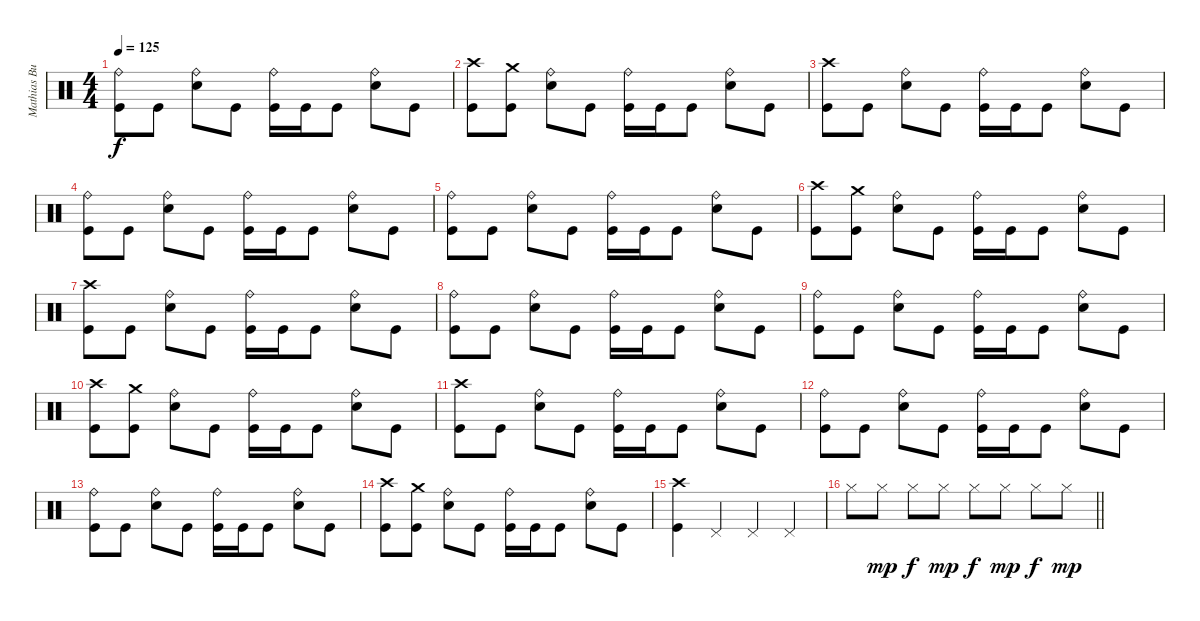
\track ("Mathias Burchardt" "Mathias Bu") {instrument percussion}
\staff {score}
\articulation defaults
\ts (4 4)
\tempo 125
\clef neutral
\ks c
("Ride (bell)" "Kick (hit)").8{dy f} "Kick (hit)".8 ("Ride (bell)" "Snare (hit) 2").8 "Kick (hit)".8 ("Ride (bell)" "Kick (hit)").16 "Kick (hit)".16 "Kick (hit)".8 ("Ride (bell)" "Snare (hit) 2").8 "Kick (hit)".8 |
("Crash high (hit)" "Kick (hit)").8 ("Crash medium (hit)" "Kick (hit)").8 ("Ride (bell)" "Snare (hit) 2").8 "Kick (hit)".8 ("Ride (bell)" "Kick (hit)").16 "Kick (hit)".16 "Kick (hit)".8 ("Ride (bell)" "Snare (hit) 2").8 "Kick (hit)".8 |
("Crash high (hit)" "Kick (hit)").8 "Kick (hit)".8 ("Ride (bell)" "Snare (hit) 2").8 "Kick (hit)".8 ("Ride (bell)" "Kick (hit)").16 "Kick (hit)".16 "Kick (hit)".8 ("Ride (bell)" "Snare (hit) 2").8 "Kick (hit)".8 |
("Ride (bell)" "Kick (hit)").8 "Kick (hit)".8 ("Ride (bell)" "Snare (hit) 2").8 "Kick (hit)".8 ("Ride (bell)" "Kick (hit)").16 "Kick (hit)".16 "Kick (hit)".8 ("Ride (bell)" "Snare (hit) 2").8 "Kick (hit)".8 |
("Ride (bell)" "Kick (hit)").8 "Kick (hit)".8 ("Ride (bell)" "Snare (hit) 2").8 "Kick (hit)".8 ("Ride (bell)" "Kick (hit)").16 "Kick (hit)".16 "Kick (hit)".8 ("Ride (bell)" "Snare (hit) 2").8 "Kick (hit)".8 |
("Crash high (hit)" "Kick (hit)").8 ("Crash medium (hit)" "Kick (hit)").8 ("Ride (bell)" "Snare (hit) 2").8 "Kick (hit)".8 ("Ride (bell)" "Kick (hit)").16 "Kick (hit)".16 "Kick (hit)".8 ("Ride (bell)" "Snare (hit) 2").8 "Kick (hit)".8 |
("Crash high (hit)" "Kick (hit)").8 "Kick (hit)".8 ("Ride (bell)" "Snare (hit) 2").8 "Kick (hit)".8 ("Ride (bell)" "Kick (hit)").16 "Kick (hit)".16 "Kick (hit)".8 ("Ride (bell)" "Snare (hit) 2").8 "Kick (hit)".8 |
("Ride (bell)" "Kick (hit)").8 "Kick (hit)".8 ("Ride (bell)" "Snare (hit) 2").8 "Kick (hit)".8 ("Ride (bell)" "Kick (hit)").16 "Kick (hit)".16 "Kick (hit)".8 ("Ride (bell)" "Snare (hit) 2").8 "Kick (hit)".8 |
("Ride (bell)" "Kick (hit)").8 "Kick (hit)".8 ("Ride (bell)" "Snare (hit) 2").8 "Kick (hit)".8 ("Ride (bell)" "Kick (hit)").16 "Kick (hit)".16 "Kick (hit)".8 ("Ride (bell)" "Snare (hit) 2").8 "Kick (hit)".8 |
("Crash high (hit)" "Kick (hit)").8 ("Crash medium (hit)" "Kick (hit)").8 ("Ride (bell)" "Snare (hit) 2").8 "Kick (hit)".8 ("Ride (bell)" "Kick (hit)").16 "Kick (hit)".16 "Kick (hit)".8 ("Ride (bell)" "Snare (hit) 2").8 "Kick (hit)".8 |
("Crash high (hit)" "Kick (hit)").8 "Kick (hit)".8 ("Ride (bell)" "Snare (hit) 2").8 "Kick (hit)".8 ("Ride (bell)" "Kick (hit)").16 "Kick (hit)".16 "Kick (hit)".8 ("Ride (bell)" "Snare (hit) 2").8 "Kick (hit)".8 |
("Ride (bell)" "Kick (hit)").8 "Kick (hit)".8 ("Ride (bell)" "Snare (hit) 2").8 "Kick (hit)".8 ("Ride (bell)" "Kick (hit)").16 "Kick (hit)".16 "Kick (hit)".8 ("Ride (bell)" "Snare (hit) 2").8 "Kick (hit)".8 |
("Ride (bell)" "Kick (hit)").8 "Kick (hit)".8 ("Ride (bell)" "Snare (hit) 2").8 "Kick (hit)".8 ("Ride (bell)" "Kick (hit)").16 "Kick (hit)".16 "Kick (hit)".8 ("Ride (bell)" "Snare (hit) 2").8 "Kick (hit)".8 |
("Crash high (hit)" "Kick (hit)").8 ("Crash medium (hit)" "Kick (hit)").8 ("Ride (bell)" "Snare (hit) 2").8 "Kick (hit)".8 ("Ride (bell)" "Kick (hit)").16 "Kick (hit)".16 "Kick (hit)".8 ("Ride (bell)" "Snare (hit) 2").8 "Kick (hit)".8 |
("Crash high (hit)" "Kick (hit)").4 "Pedal Hi-Hat (hit)".4 "Pedal Hi-Hat (hit)".4 "Pedal Hi-Hat (hit)".4 |
\barLineRight lightlight "Hi-Hat (closed)".8 "Hi-Hat (closed)".8{dy mp} "Hi-Hat (closed)".8{dy f} "Hi-Hat (closed)".8{dy mp} "Hi-Hat (closed)".8{dy f} "Hi-Hat (closed)".8{dy mp} "Hi-Hat (closed)".8{dy f} "Hi-Hat (closed)".8{dy mp}
